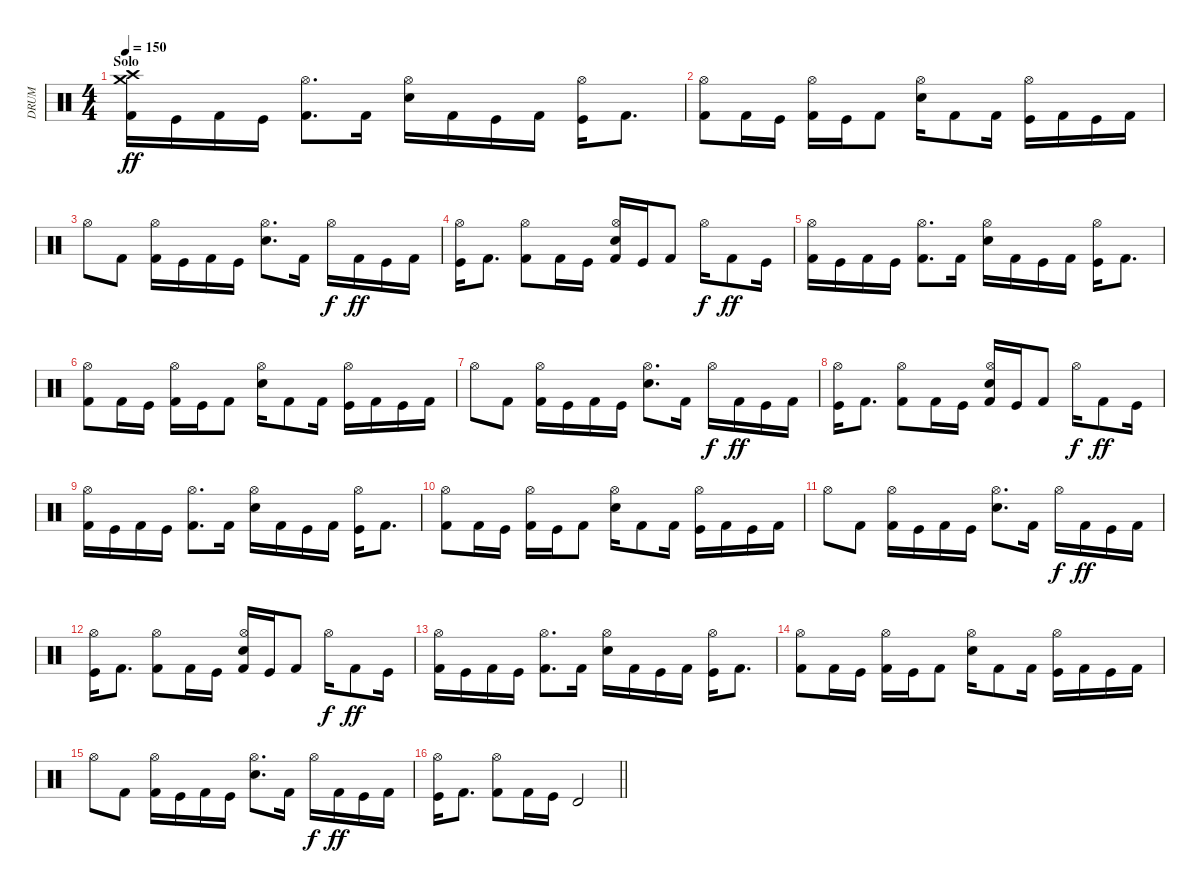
\track ("DRUM" "DRUM") {instrument percussion}
\staff {score}
\articulation defaults
\ts (4 4)
\section ("" "Solo")
\tempo 150
\clef neutral
\ks c
("Crash medium (hit)" "Crash high (hit)" "Kick (hit) 2").16{dy ff} "Kick (hit)".16 "Kick (hit) 2".16 "Kick (hit)".16 ("Hi-Hat (open)" "Kick (hit) 2").8{d} "Kick (hit) 2".16 ("Hi-Hat (open)" "Snare (hit) 2").16 "Kick (hit) 2".16 "Kick (hit)".16 "Kick (hit) 2".16 ("Hi-Hat (open)" "Kick (hit)").16 "Kick (hit) 2".8{d} |
("Hi-Hat (open)" "Kick (hit) 2").8 "Kick (hit) 2".16 "Kick (hit)".16 ("Hi-Hat (open)" "Kick (hit) 2").16 "Kick (hit)".16 "Kick (hit) 2".8 ("Hi-Hat (open)" "Snare (hit) 2").16 "Kick (hit) 2".8 "Kick (hit) 2".16 ("Hi-Hat (open)" "Kick (hit)").16 "Kick (hit) 2".16 "Kick (hit)".16 "Kick (hit) 2".16 |
"Hi-Hat (open)".8 "Kick (hit) 2".8 ("Hi-Hat (open)" "Kick (hit) 2").16 "Kick (hit)".16 "Kick (hit) 2".16 "Kick (hit)".16 ("Hi-Hat (open)" "Snare (hit) 2").8{d} "Kick (hit) 2".16 "Hi-Hat (open)".16{dy f} "Kick (hit) 2".16{dy ff} "Kick (hit)".16 "Kick (hit) 2".16 |
("Hi-Hat (open)" "Kick (hit)").16 "Kick (hit) 2".8{d} ("Hi-Hat (open)" "Kick (hit) 2").8 "Kick (hit) 2".16 "Kick (hit)".16 ("Hi-Hat (open)" "Snare (hit) 2" "Kick (hit) 2").16 "Kick (hit)".16 "Kick (hit) 2".8 "Hi-Hat (open)".16{dy f} "Kick (hit) 2".8{dy ff} "Kick (hit)".16 |
("Hi-Hat (open)" "Kick (hit) 2").16 "Kick (hit)".16 "Kick (hit) 2".16 "Kick (hit)".16 ("Hi-Hat (open)" "Kick (hit) 2").8{d} "Kick (hit) 2".16 ("Hi-Hat (open)" "Snare (hit) 2").16 "Kick (hit) 2".16 "Kick (hit)".16 "Kick (hit) 2".16 ("Hi-Hat (open)" "Kick (hit)").16 "Kick (hit) 2".8{d} |
("Hi-Hat (open)" "Kick (hit) 2").8 "Kick (hit) 2".16 "Kick (hit)".16 ("Hi-Hat (open)" "Kick (hit) 2").16 "Kick (hit)".16 "Kick (hit) 2".8 ("Hi-Hat (open)" "Snare (hit) 2").16 "Kick (hit) 2".8 "Kick (hit) 2".16 ("Hi-Hat (open)" "Kick (hit)").16 "Kick (hit) 2".16 "Kick (hit)".16 "Kick (hit) 2".16 |
"Hi-Hat (open)".8 "Kick (hit) 2".8 ("Hi-Hat (open)" "Kick (hit) 2").16 "Kick (hit)".16 "Kick (hit) 2".16 "Kick (hit)".16 ("Hi-Hat (open)" "Snare (hit) 2").8{d} "Kick (hit) 2".16 "Hi-Hat (open)".16{dy f} "Kick (hit) 2".16{dy ff} "Kick (hit)".16 "Kick (hit) 2".16 |
("Hi-Hat (open)" "Kick (hit)").16 "Kick (hit) 2".8{d} ("Hi-Hat (open)" "Kick (hit) 2").8 "Kick (hit) 2".16 "Kick (hit)".16 ("Hi-Hat (open)" "Snare (hit) 2" "Kick (hit) 2").16 "Kick (hit)".16 "Kick (hit) 2".8 "Hi-Hat (open)".16{dy f} "Kick (hit) 2".8{dy ff} "Kick (hit)".16 |
("Hi-Hat (open)" "Kick (hit) 2").16 "Kick (hit)".16 "Kick (hit) 2".16 "Kick (hit)".16 ("Hi-Hat (open)" "Kick (hit) 2").8{d} "Kick (hit) 2".16 ("Hi-Hat (open)" "Snare (hit) 2").16 "Kick (hit) 2".16 "Kick (hit)".16 "Kick (hit) 2".16 ("Hi-Hat (open)" "Kick (hit)").16 "Kick (hit) 2".8{d} |
("Hi-Hat (open)" "Kick (hit) 2").8 "Kick (hit) 2".16 "Kick (hit)".16 ("Hi-Hat (open)" "Kick (hit) 2").16 "Kick (hit)".16 "Kick (hit) 2".8 ("Hi-Hat (open)" "Snare (hit) 2").16 "Kick (hit) 2".8 "Kick (hit) 2".16 ("Hi-Hat (open)" "Kick (hit)").16 "Kick (hit) 2".16 "Kick (hit)".16 "Kick (hit) 2".16 |
"Hi-Hat (open)".8 "Kick (hit) 2".8 ("Hi-Hat (open)" "Kick (hit) 2").16 "Kick (hit)".16 "Kick (hit) 2".16 "Kick (hit)".16 ("Hi-Hat (open)" "Snare (hit) 2").8{d} "Kick (hit) 2".16 "Hi-Hat (open)".16{dy f} "Kick (hit) 2".16{dy ff} "Kick (hit)".16 "Kick (hit) 2".16 |
("Hi-Hat (open)" "Kick (hit)").16 "Kick (hit) 2".8{d} ("Hi-Hat (open)" "Kick (hit) 2").8 "Kick (hit) 2".16 "Kick (hit)".16 ("Hi-Hat (open)" "Snare (hit) 2" "Kick (hit) 2").16 "Kick (hit)".16 "Kick (hit) 2".8 "Hi-Hat (open)".16{dy f} "Kick (hit) 2".8{dy ff} "Kick (hit)".16 |
("Hi-Hat (open)" "Kick (hit) 2").16 "Kick (hit)".16 "Kick (hit) 2".16 "Kick (hit)".16 ("Hi-Hat (open)" "Kick (hit) 2").8{d} "Kick (hit) 2".16 ("Hi-Hat (open)" "Snare (hit) 2").16 "Kick (hit) 2".16 "Kick (hit)".16 "Kick (hit) 2".16 ("Hi-Hat (open)" "Kick (hit)").16 "Kick (hit) 2".8{d} |
("Hi-Hat (open)" "Kick (hit) 2").8 "Kick (hit) 2".16 "Kick (hit)".16 ("Hi-Hat (open)" "Kick (hit) 2").16 "Kick (hit)".16 "Kick (hit) 2".8 ("Hi-Hat (open)" "Snare (hit) 2").16 "Kick (hit) 2".8 "Kick (hit) 2".16 ("Hi-Hat (open)" "Kick (hit)").16 "Kick (hit) 2".16 "Kick (hit)".16 "Kick (hit) 2".16 |
"Hi-Hat (open)".8 "Kick (hit) 2".8 ("Hi-Hat (open)" "Kick (hit) 2").16 "Kick (hit)".16 "Kick (hit) 2".16 "Kick (hit)".16 ("Hi-Hat (open)" "Snare (hit) 2").8{d} "Kick (hit) 2".16 "Hi-Hat (open)".16{dy f} "Kick (hit) 2".16{dy ff} "Kick (hit)".16 "Kick (hit) 2".16 |
\barLineRight lightlight
("Hi-Hat (open)" "Kick (hit)").16 "Kick (hit) 2".8{d} ("Hi-Hat (open)" "Kick (hit) 2").8 "Kick (hit) 2".16 "Kick (hit)".16 "Timbale high (hit)".2
